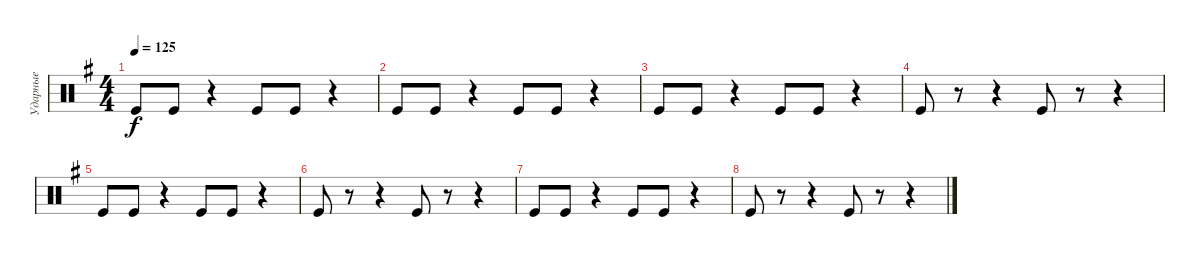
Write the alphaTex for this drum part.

\track ("Ударные" "Ударные") {instrument percussion}
\staff {score}
\articulation defaults
\ts (4 4)
\tempo 125
\clef neutral
\ks g "Kick (hit)".8{dy f} "Kick (hit)".8
r.4 "Kick (hit)".8 "Kick (hit)".8 r.4 |
"Kick (hit)".8 "Kick (hit)".8 r.4 "Kick (hit)".8 "Kick (hit)".8 r.4 |
"Kick (hit)".8 "Kick (hit)".8 r.4 "Kick (hit)".8 "Kick (hit)".8 r.4 |
"Kick (hit)".8 r.8 r.4 "Kick (hit)".8 r.8 r.4 |
"Kick (hit)".8 "Kick (hit)".8 r.4 "Kick (hit)".8 "Kick (hit)".8 r.4 |
"Kick (hit)".8 r.8 r.4 "Kick (hit)".8 r.8 r.4 |
"Kick (hit)".8 "Kick (hit)".8 r.4 "Kick (hit)".8 "Kick (hit)".8 r.4 |
"Kick (hit)".8 r.8 r.4 "Kick (hit)".8 r.8 r.4
